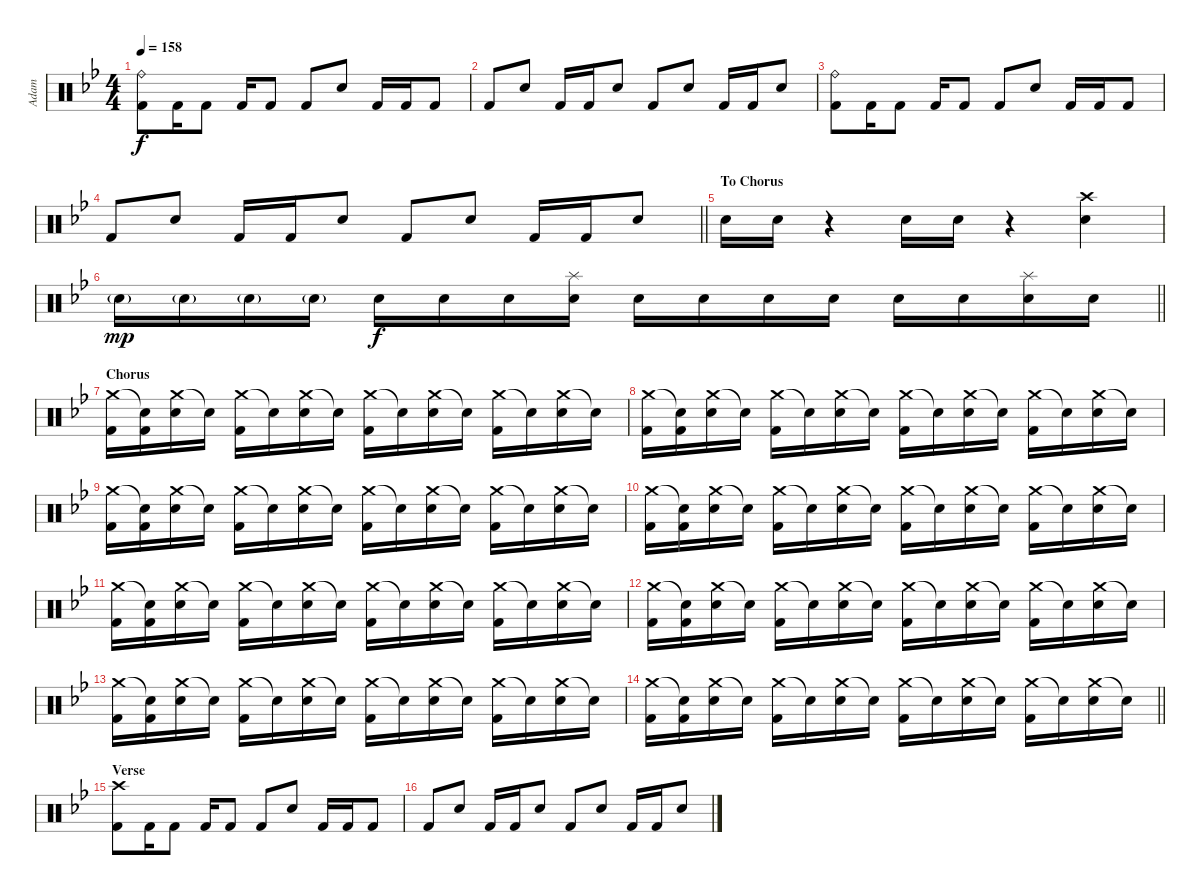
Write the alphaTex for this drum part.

\track ("Adam" "Adam") {instrument percussion}
\staff
\articulation defaults
\ts (4 4)
\tempo 158
\clef neutral
\ks gminor
("Ride (bell)" "Kick (hit) 2").8{dy f} "Kick (hit) 2".16 "Kick (hit) 2".8 "Kick (hit) 2".16 "Kick (hit) 2".8 "Kick (hit) 2".8 "Snare (hit) 2".8 "Kick (hit) 2".16 "Kick (hit) 2".16 "Kick (hit) 2".8 |
"Kick (hit) 2".8 "Snare (hit) 2".8 "Kick (hit) 2".16 "Kick (hit) 2".16 "Snare (hit) 2".8 "Kick (hit) 2".8 "Snare (hit) 2".8 "Kick (hit) 2".16 "Kick (hit) 2".16 "Snare (hit) 2".8 |
("Ride (bell)" "Kick (hit) 2").8 "Kick (hit) 2".16 "Kick (hit) 2".8 "Kick (hit) 2".16 "Kick (hit) 2".8 "Kick (hit) 2".8 "Snare (hit) 2".8 "Kick (hit) 2".16 "Kick (hit) 2".16 "Kick (hit) 2".8 |
\barLineRight lightlight "Kick (hit) 2".8 "Snare (hit) 2".8 "Kick (hit) 2".16 "Kick (hit) 2".16 "Snare (hit) 2".8 "Kick (hit) 2".8 "Snare (hit) 2".8 "Kick (hit) 2".16 "Kick (hit) 2".16 "Snare (hit) 2".8
|
\section ("" "To Chorus")
"Snare (hit) 2".16 "Snare (hit) 2".16 r.4 "Snare (hit) 2".16 "Snare (hit) 2".16 r.4 ("Crash high (hit)" "Snare (hit) 2").4 |
\barLineRight lightlight "Snare (hit) 2"{g}.16{dy mp} "Snare (hit) 2"{g}.16 "Snare (hit) 2"{g}.16 "Snare (hit) 2"{g}.16 "Snare (hit) 2".16{dy f} "Snare (hit) 2".16 "Snare (hit) 2".16
("Splash (hit)" "Snare (hit) 2").16 "Snare (hit) 2".16 "Snare (hit) 2".16 "Snare (hit) 2".16 "Snare (hit) 2".16 "Snare (hit) 2".16 "Snare (hit) 2".16 ("Splash (hit)" "Snare (hit) 2").16 "Snare (hit) 2".16 |
\section ("" "Chorus")
("Crash medium (hit)" "Kick (hit) 2").16 ("Snare (hit)"{t} "Kick (hit) 2").16 ("Crash medium (hit)" "Snare (hit) 2").16 "Snare (hit)"{t}.16 ("Crash medium (hit)" "Kick (hit) 2").16 "Snare (hit)"{t}.16 ("Crash medium (hit)" "Snare (hit) 2").16 "Snare (hit)"{t}.16 ("Crash medium (hit)" "Kick (hit) 2").16 "Snare (hit)"{t}.16 ("Crash medium (hit)" "Snare (hit) 2").16 "Snare (hit)"{t}.16 ("Crash medium (hit)" "Kick (hit) 2").16 "Snare (hit)"{t}.16 ("Crash medium (hit)" "Snare (hit) 2").16 "Snare (hit)"{t}.16 |
("Crash medium (hit)" "Kick (hit) 2").16 ("Snare (hit)"{t} "Kick (hit) 2").16 ("Crash medium (hit)" "Snare (hit) 2").16 "Snare (hit)"{t}.16 ("Crash medium (hit)" "Kick (hit) 2").16 "Snare (hit)"{t}.16 ("Crash medium (hit)" "Snare (hit) 2").16 "Snare (hit)"{t}.16 ("Crash medium (hit)" "Kick (hit) 2").16 "Snare (hit)"{t}.16 ("Crash medium (hit)" "Snare (hit) 2").16 "Snare (hit)"{t}.16 ("Crash medium (hit)" "Kick (hit) 2").16 "Snare (hit)"{t}.16 ("Crash medium (hit)" "Snare (hit) 2").16 "Snare (hit)"{t}.16 |
("Crash medium (hit)" "Kick (hit) 2").16 ("Snare (hit)"{t} "Kick (hit) 2").16 ("Crash medium (hit)" "Snare (hit) 2").16 "Snare (hit)"{t}.16 ("Crash medium (hit)" "Kick (hit) 2").16 "Snare (hit)"{t}.16 ("Crash medium (hit)" "Snare (hit) 2").16 "Snare (hit)"{t}.16 ("Crash medium (hit)" "Kick (hit) 2").16 "Snare (hit)"{t}.16 ("Crash medium (hit)" "Snare (hit) 2").16 "Snare (hit)"{t}.16 ("Crash medium (hit)" "Kick (hit) 2").16 "Snare (hit)"{t}.16 ("Crash medium (hit)" "Snare (hit) 2").16 "Snare (hit)"{t}.16 |
("Crash medium (hit)" "Kick (hit) 2").16 ("Snare (hit)"{t} "Kick (hit) 2").16 ("Crash medium (hit)" "Snare (hit) 2").16 "Snare (hit)"{t}.16 ("Crash medium (hit)" "Kick (hit) 2").16 "Snare (hit)"{t}.16 ("Crash medium (hit)" "Snare (hit) 2").16 "Snare (hit)"{t}.16 ("Crash medium (hit)" "Kick (hit) 2").16 "Snare (hit)"{t}.16 ("Crash medium (hit)" "Snare (hit) 2").16 "Snare (hit)"{t}.16 ("Crash medium (hit)" "Kick (hit) 2").16 "Snare (hit)"{t}.16 ("Crash medium (hit)" "Snare (hit) 2").16 "Snare (hit)"{t}.16 |
("Crash medium (hit)" "Kick (hit) 2").16 ("Snare (hit)"{t} "Kick (hit) 2").16 ("Crash medium (hit)" "Snare (hit) 2").16 "Snare (hit)"{t}.16 ("Crash medium (hit)" "Kick (hit) 2").16 "Snare (hit)"{t}.16 ("Crash medium (hit)" "Snare (hit) 2").16 "Snare (hit)"{t}.16 ("Crash medium (hit)" "Kick (hit) 2").16 "Snare (hit)"{t}.16 ("Crash medium (hit)" "Snare (hit) 2").16 "Snare (hit)"{t}.16 ("Crash medium (hit)" "Kick (hit) 2").16 "Snare (hit)"{t}.16 ("Crash medium (hit)" "Snare (hit) 2").16 "Snare (hit)"{t}.16 |
("Crash medium (hit)" "Kick (hit) 2").16 ("Snare (hit)"{t} "Kick (hit) 2").16 ("Crash medium (hit)" "Snare (hit) 2").16 "Snare (hit)"{t}.16 ("Crash medium (hit)" "Kick (hit) 2").16 "Snare (hit)"{t}.16 ("Crash medium (hit)" "Snare (hit) 2").16 "Snare (hit)"{t}.16 ("Crash medium (hit)" "Kick (hit) 2").16 "Snare (hit)"{t}.16 ("Crash medium (hit)" "Snare (hit) 2").16 "Snare (hit)"{t}.16 ("Crash medium (hit)" "Kick (hit) 2").16 "Snare (hit)"{t}.16 ("Crash medium (hit)" "Snare (hit) 2").16 "Snare (hit)"{t}.16 |
("Crash medium (hit)" "Kick (hit) 2").16 ("Snare (hit)"{t} "Kick (hit) 2").16 ("Crash medium (hit)" "Snare (hit) 2").16 "Snare (hit)"{t}.16 ("Crash medium (hit)" "Kick (hit) 2").16 "Snare (hit)"{t}.16 ("Crash medium (hit)" "Snare (hit) 2").16 "Snare (hit)"{t}.16 ("Crash medium (hit)" "Kick (hit) 2").16 "Snare (hit)"{t}.16 ("Crash medium (hit)" "Snare (hit) 2").16 "Snare (hit)"{t}.16 ("Crash medium (hit)" "Kick (hit) 2").16 "Snare (hit)"{t}.16 ("Crash medium (hit)" "Snare (hit) 2").16 "Snare (hit)"{t}.16 |
\barLineRight lightlight
("Crash medium (hit)" "Kick (hit) 2").16 ("Snare (hit)"{t} "Kick (hit) 2").16 ("Crash medium (hit)" "Snare (hit) 2").16 "Snare (hit)"{t}.16 ("Crash medium (hit)" "Kick (hit) 2").16 "Snare (hit)"{t}.16 ("Crash medium (hit)" "Snare (hit) 2").16 "Snare (hit)"{t}.16 ("Crash medium (hit)" "Kick (hit) 2").16 "Snare (hit)"{t}.16 ("Crash medium (hit)" "Snare (hit) 2").16 "Snare (hit)"{t}.16 ("Crash medium (hit)" "Kick (hit) 2").16 "Snare (hit)"{t}.16 ("Crash medium (hit)" "Snare (hit) 2").16 "Snare (hit)"{t}.16 |
\section ("" "Verse")
("Crash high (hit)" "Kick (hit) 2").8 "Kick (hit) 2".16 "Kick (hit) 2".8 "Kick (hit) 2".16 "Kick (hit) 2".8 "Kick (hit) 2".8 "Snare (hit) 2".8 "Kick (hit) 2".16 "Kick (hit) 2".16 "Kick (hit) 2".8 |
"Kick (hit) 2".8 "Snare (hit) 2".8 "Kick (hit) 2".16 "Kick (hit) 2".16 "Snare (hit) 2".8 "Kick (hit) 2".8 "Snare (hit) 2".8 "Kick (hit) 2".16 "Kick (hit) 2".16 "Snare (hit) 2".8
